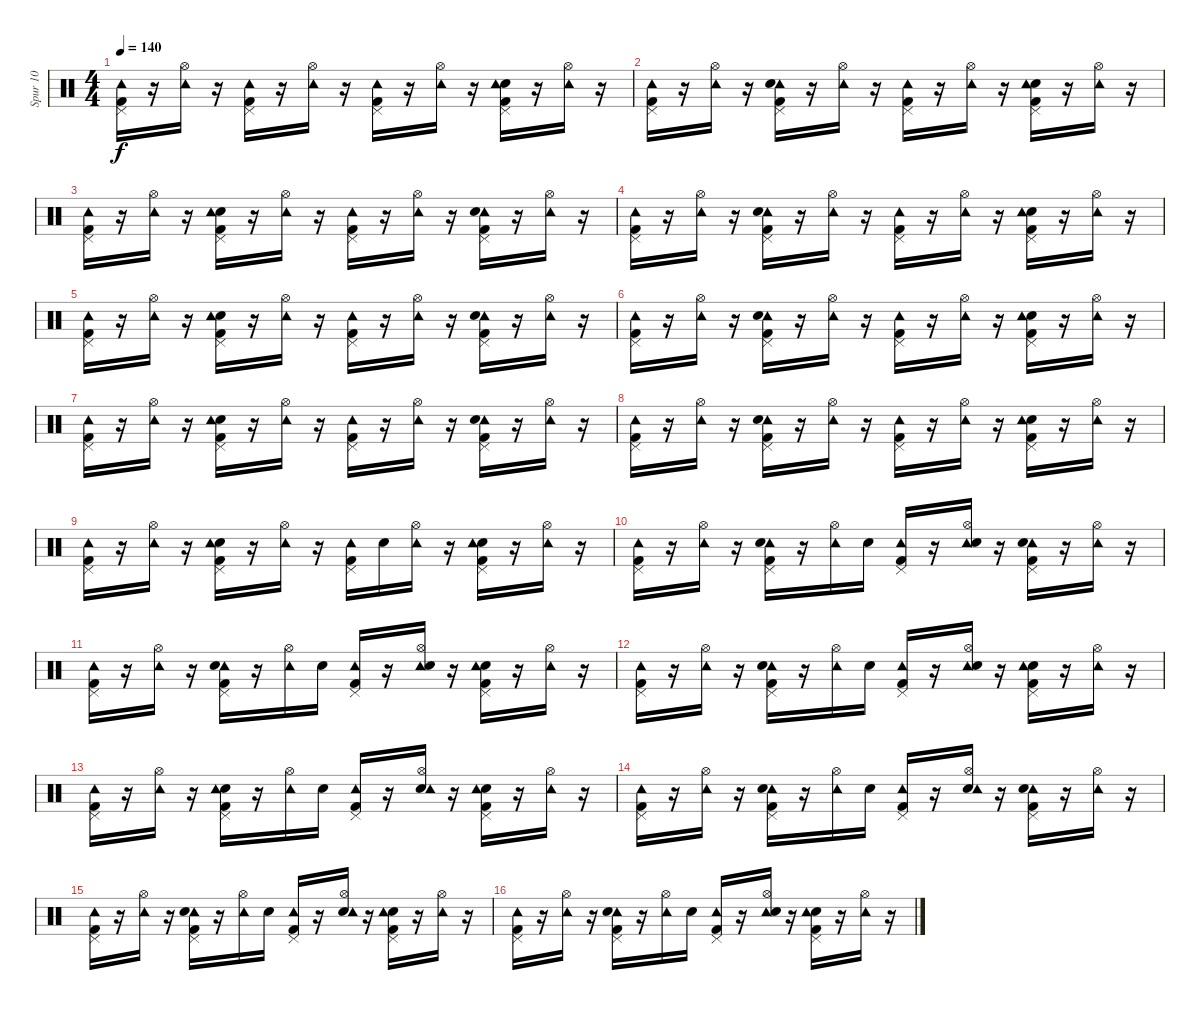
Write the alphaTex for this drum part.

\track ("Spur 10" "Spur 10") {instrument percussion}
\staff {score}
\articulation defaults
\ts (4 4)
\tempo 140
\clef neutral
\ks c
("Tambourine (hit)" "Kick (hit) 2" "Pedal Hi-Hat (hit)").16{dy f} r.16 ("Tambourine (hit)" "Hi-Hat (open)").16 r.16 ("Pedal Hi-Hat (hit)" "Kick (hit) 2" "Tambourine (hit)").16 r.16 ("Tambourine (hit)" "Hi-Hat (open)").16 r.16 ("Pedal Hi-Hat (hit)" "Kick (hit) 2" "Tambourine (hit)").16 r.16 ("Tambourine (hit)" "Hi-Hat (open)").16 r.16 ("Snare (hit) 2" "Kick (hit) 2" "Pedal Hi-Hat (hit)" "Tambourine (hit)").16 r.16 ("Hi-Hat (open)" "Tambourine (hit)").16 r.16 |
("Pedal Hi-Hat (hit)" "Tambourine (hit)" "Kick (hit) 2").16 r.16 ("Tambourine (hit)" "Hi-Hat (open)").16 r.16 ("Kick (hit) 2" "Tambourine (hit)" "Snare (hit) 2" "Pedal Hi-Hat (hit)").16 r.16 ("Hi-Hat (open)" "Tambourine (hit)").16 r.16 ("Pedal Hi-Hat (hit)" "Tambourine (hit)" "Kick (hit) 2").16 r.16 ("Hi-Hat (open)" "Tambourine (hit)").16 r.16 ("Kick (hit) 2" "Snare (hit) 2" "Pedal Hi-Hat (hit)" "Tambourine (hit)").16 r.16 ("Hi-Hat (open)" "Tambourine (hit)").16 r.16 |
("Pedal Hi-Hat (hit)" "Kick (hit) 2" "Tambourine (hit)").16 r.16 ("Hi-Hat (open)" "Tambourine (hit)").16 r.16 ("Pedal Hi-Hat (hit)" "Kick (hit) 2" "Snare (hit) 2" "Tambourine (hit)").16 r.16 ("Tambourine (hit)" "Hi-Hat (open)").16 r.16 ("Tambourine (hit)" "Pedal Hi-Hat (hit)" "Kick (hit) 2").16 r.16 ("Hi-Hat (open)" "Tambourine (hit)").16 r.16 ("Kick (hit) 2" "Tambourine (hit)" "Snare (hit) 2" "Pedal Hi-Hat (hit)").16 r.16 ("Tambourine (hit)" "Hi-Hat (open)").16 r.16 |
("Pedal Hi-Hat (hit)" "Tambourine (hit)" "Kick (hit) 2").16 r.16 ("Tambourine (hit)" "Hi-Hat (open)").16 r.16 ("Kick (hit) 2" "Tambourine (hit)" "Snare (hit) 2" "Pedal Hi-Hat (hit)").16 r.16 ("Hi-Hat (open)" "Tambourine (hit)").16 r.16 ("Pedal Hi-Hat (hit)" "Tambourine (hit)" "Kick (hit) 2").16 r.16 ("Hi-Hat (open)" "Tambourine (hit)").16 r.16 ("Kick (hit) 2" "Snare (hit) 2" "Pedal Hi-Hat (hit)" "Tambourine (hit)").16 r.16 ("Hi-Hat (open)" "Tambourine (hit)").16 r.16 |
("Pedal Hi-Hat (hit)" "Kick (hit) 2" "Tambourine (hit)").16 r.16 ("Hi-Hat (open)" "Tambourine (hit)").16 r.16 ("Pedal Hi-Hat (hit)" "Kick (hit) 2" "Snare (hit) 2" "Tambourine (hit)").16 r.16 ("Tambourine (hit)" "Hi-Hat (open)").16 r.16 ("Tambourine (hit)" "Pedal Hi-Hat (hit)" "Kick (hit) 2").16 r.16 ("Hi-Hat (open)" "Tambourine (hit)").16 r.16 ("Kick (hit) 2" "Tambourine (hit)" "Snare (hit) 2" "Pedal Hi-Hat (hit)").16 r.16 ("Tambourine (hit)" "Hi-Hat (open)").16 r.16 |
("Pedal Hi-Hat (hit)" "Tambourine (hit)" "Kick (hit) 2").16 r.16 ("Tambourine (hit)" "Hi-Hat (open)").16 r.16 ("Kick (hit) 2" "Tambourine (hit)" "Snare (hit) 2" "Pedal Hi-Hat (hit)").16 r.16 ("Hi-Hat (open)" "Tambourine (hit)").16 r.16 ("Pedal Hi-Hat (hit)" "Tambourine (hit)" "Kick (hit) 2").16 r.16 ("Hi-Hat (open)" "Tambourine (hit)").16 r.16 ("Kick (hit) 2" "Snare (hit) 2" "Pedal Hi-Hat (hit)" "Tambourine (hit)").16 r.16 ("Hi-Hat (open)" "Tambourine (hit)").16 r.16 |
("Pedal Hi-Hat (hit)" "Kick (hit) 2" "Tambourine (hit)").16 r.16 ("Hi-Hat (open)" "Tambourine (hit)").16 r.16 ("Pedal Hi-Hat (hit)" "Kick (hit) 2" "Snare (hit) 2" "Tambourine (hit)").16 r.16 ("Tambourine (hit)" "Hi-Hat (open)").16 r.16 ("Tambourine (hit)" "Pedal Hi-Hat (hit)" "Kick (hit) 2").16 r.16 ("Hi-Hat (open)" "Tambourine (hit)").16 r.16 ("Kick (hit) 2" "Tambourine (hit)" "Snare (hit) 2" "Pedal Hi-Hat (hit)").16 r.16 ("Tambourine (hit)" "Hi-Hat (open)").16 r.16 |
("Pedal Hi-Hat (hit)" "Tambourine (hit)" "Kick (hit) 2").16 r.16 ("Tambourine (hit)" "Hi-Hat (open)").16 r.16 ("Kick (hit) 2" "Tambourine (hit)" "Snare (hit) 2" "Pedal Hi-Hat (hit)").16 r.16 ("Hi-Hat (open)" "Tambourine (hit)").16 r.16 ("Pedal Hi-Hat (hit)" "Tambourine (hit)" "Kick (hit) 2").16 r.16 ("Hi-Hat (open)" "Tambourine (hit)").16 r.16 ("Kick (hit) 2" "Snare (hit) 2" "Pedal Hi-Hat (hit)" "Tambourine (hit)").16 r.16 ("Hi-Hat (open)" "Tambourine (hit)").16 r.16 |
("Kick (hit) 2" "Pedal Hi-Hat (hit)" "Tambourine (hit)").16 r.16 ("Hi-Hat (open)" "Tambourine (hit)").16 r.16 ("Pedal Hi-Hat (hit)" "Kick (hit) 2" "Snare (hit) 2" "Tambourine (hit)").16 r.16 ("Hi-Hat (open)" "Tambourine (hit)").16 r.16 ("Pedal Hi-Hat (hit)" "Tambourine (hit)" "Kick (hit) 2").16 "Snare (hit) 2".16 ("Tambourine (hit)" "Hi-Hat (open)").16 r.16 ("Snare (hit) 2" "Kick (hit) 2" "Tambourine (hit)" "Pedal Hi-Hat (hit)").16 r.16 ("Tambourine (hit)" "Hi-Hat (open)").16 r.16 |
("Tambourine (hit)" "Pedal Hi-Hat (hit)" "Kick (hit) 2").16 r.16 ("Hi-Hat (open)" "Tambourine (hit)").16 r.16 ("Kick (hit) 2" "Tambourine (hit)" "Pedal Hi-Hat (hit)" "Snare (hit) 2").16 r.16 ("Tambourine (hit)" "Hi-Hat (open)").16 "Snare (hit) 2".16 ("Pedal Hi-Hat (hit)" "Tambourine (hit)" "Kick (hit) 2").16 r.16 ("Hi-Hat (open)" "Tambourine (hit)" "Snare (hit) 2").16 r.16 ("Tambourine (hit)" "Kick (hit) 2" "Pedal Hi-Hat (hit)" "Snare (hit) 2").16 r.16 ("Tambourine (hit)" "Hi-Hat (open)").16 r.16 |
("Tambourine (hit)" "Pedal Hi-Hat (hit)" "Kick (hit) 2").16 r.16 ("Tambourine (hit)" "Hi-Hat (open)").16 r.16 ("Tambourine (hit)" "Pedal Hi-Hat (hit)" "Snare (hit) 2" "Kick (hit) 2").16 r.16 ("Hi-Hat (open)" "Tambourine (hit)").16 "Snare (hit) 2".16 ("Pedal Hi-Hat (hit)" "Tambourine (hit)" "Kick (hit) 2").16 r.16 ("Hi-Hat (open)" "Tambourine (hit)" "Snare (hit) 2").16 r.16 ("Snare (hit) 2" "Kick (hit) 2" "Tambourine (hit)" "Pedal Hi-Hat (hit)").16 r.16 ("Tambourine (hit)" "Hi-Hat (open)").16 r.16 |
("Tambourine (hit)" "Kick (hit) 2" "Pedal Hi-Hat (hit)").16 r.16 ("Hi-Hat (open)" "Tambourine (hit)").16 r.16 ("Tambourine (hit)" "Pedal Hi-Hat (hit)" "Kick (hit) 2" "Snare (hit) 2").16 r.16 ("Tambourine (hit)" "Hi-Hat (open)").16 "Snare (hit) 2".16 ("Pedal Hi-Hat (hit)" "Tambourine (hit)" "Kick (hit) 2").16 r.16 ("Hi-Hat (open)" "Tambourine (hit)" "Snare (hit) 2").16 r.16 ("Snare (hit) 2" "Kick (hit) 2" "Tambourine (hit)" "Pedal Hi-Hat (hit)").16 r.16 ("Hi-Hat (open)" "Tambourine (hit)").16 r.16 |
("Kick (hit) 2" "Tambourine (hit)" "Pedal Hi-Hat (hit)").16 r.16 ("Tambourine (hit)" "Hi-Hat (open)").16 r.16 ("Pedal Hi-Hat (hit)" "Kick (hit) 2" "Snare (hit) 2" "Tambourine (hit)").16 r.16 ("Hi-Hat (open)" "Tambourine (hit)").16 "Snare (hit) 2".16 ("Pedal Hi-Hat (hit)" "Kick (hit) 2" "Tambourine (hit)").16 r.16 ("Snare (hit) 2" "Tambourine (hit)" "Hi-Hat (open)").16 r.16 ("Kick (hit) 2" "Snare (hit) 2" "Tambourine (hit)" "Pedal Hi-Hat (hit)").16 r.16 ("Tambourine (hit)" "Hi-Hat (open)").16 r.16 |
("Tambourine (hit)" "Kick (hit) 2" "Pedal Hi-Hat (hit)").16 r.16 ("Tambourine (hit)" "Hi-Hat (open)").16 r.16 ("Tambourine (hit)" "Kick (hit) 2" "Snare (hit) 2" "Pedal Hi-Hat (hit)").16 r.16 ("Hi-Hat (open)" "Tambourine (hit)").16 "Snare (hit) 2".16 ("Pedal Hi-Hat (hit)" "Tambourine (hit)" "Kick (hit) 2").16 r.16 ("Snare (hit) 2" "Tambourine (hit)" "Hi-Hat (open)").16 r.16 ("Pedal Hi-Hat (hit)" "Kick (hit) 2" "Tambourine (hit)" "Snare (hit) 2").16 r.16 ("Tambourine (hit)" "Hi-Hat (open)").16 r.16 |
("Pedal Hi-Hat (hit)" "Kick (hit) 2" "Tambourine (hit)").16 r.16 ("Hi-Hat (open)" "Tambourine (hit)").16 r.16 ("Kick (hit) 2" "Tambourine (hit)" "Pedal Hi-Hat (hit)" "Snare (hit) 2").16 r.16 ("Hi-Hat (open)" "Tambourine (hit)").16 "Snare (hit) 2".16 ("Tambourine (hit)" "Pedal Hi-Hat (hit)" "Kick (hit) 2").16 r.16 ("Snare (hit) 2" "Hi-Hat (open)" "Tambourine (hit)").16 r.16 ("Snare (hit) 2" "Tambourine (hit)" "Kick (hit) 2" "Pedal Hi-Hat (hit)").16 r.16 ("Hi-Hat (open)" "Tambourine (hit)").16 r.16 |
("Tambourine (hit)" "Pedal Hi-Hat (hit)" "Kick (hit) 2").16 r.16 ("Tambourine (hit)" "Hi-Hat (open)").16 r.16 ("Tambourine (hit)" "Kick (hit) 2" "Pedal Hi-Hat (hit)" "Snare (hit) 2").16 r.16 ("Tambourine (hit)" "Hi-Hat (open)").16 "Snare (hit) 2".16 ("Pedal Hi-Hat (hit)" "Kick (hit) 2" "Tambourine (hit)").16 r.16 ("Tambourine (hit)" "Snare (hit) 2" "Hi-Hat (open)").16 r.16 ("Pedal Hi-Hat (hit)" "Snare (hit) 2" "Kick (hit) 2" "Tambourine (hit)").16 r.16 ("Tambourine (hit)" "Hi-Hat (open)").16 r.16
